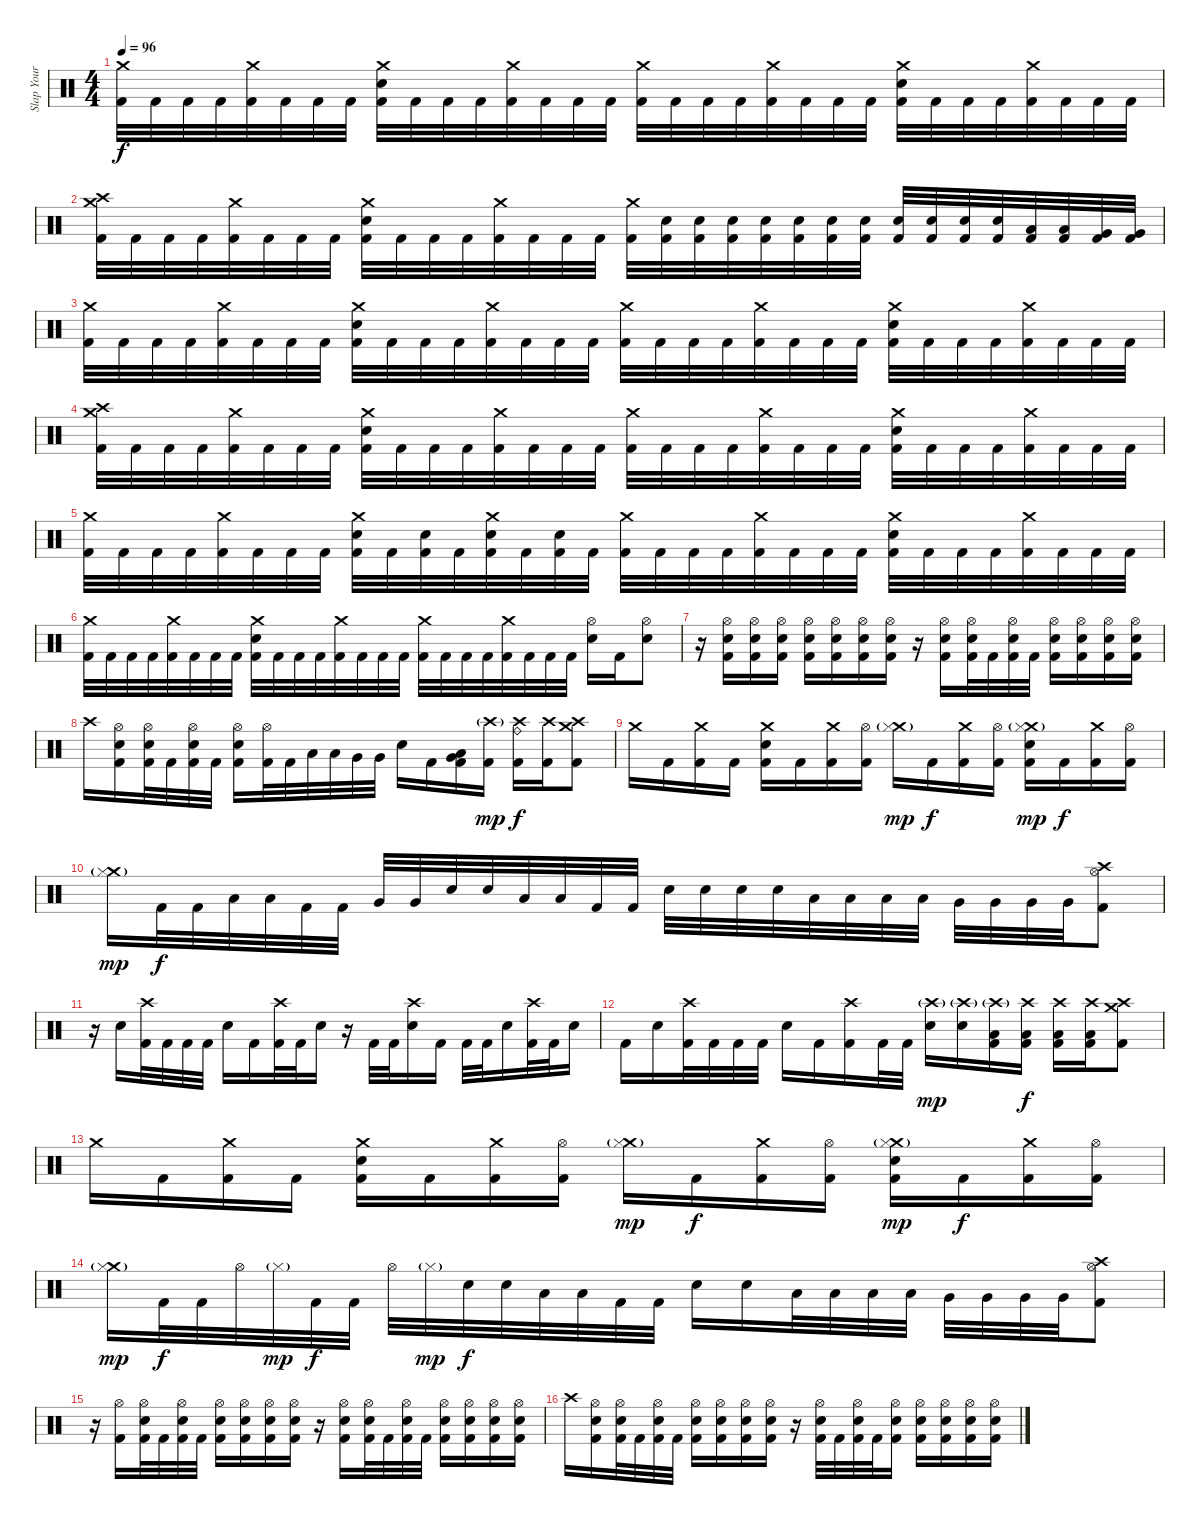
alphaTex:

\track ("Slap Your Sticks" "Slap Your ") {instrument percussion}
\staff {score}
\articulation defaults
\ts (4 4)
\tempo 96
\clef neutral
\ks c
("Crash medium (hit)" "Kick (hit) 2").32{dy f} "Kick (hit) 2".32 "Kick (hit) 2".32 "Kick (hit) 2".32 ("Crash medium (hit)" "Kick (hit) 2").32 "Kick (hit) 2".32 "Kick (hit) 2".32 "Kick (hit) 2".32 ("Crash medium (hit)" "Snare (hit) 2" "Kick (hit) 2").32 "Kick (hit) 2".32 "Kick (hit) 2".32 "Kick (hit) 2".32 ("Crash medium (hit)" "Kick (hit) 2").32 "Kick (hit) 2".32 "Kick (hit) 2".32 "Kick (hit) 2".32 ("Crash medium (hit)" "Kick (hit) 2").32 "Kick (hit) 2".32 "Kick (hit) 2".32 "Kick (hit) 2".32 ("Crash medium (hit)" "Kick (hit) 2").32 "Kick (hit) 2".32 "Kick (hit) 2".32 "Kick (hit) 2".32 ("Crash medium (hit)" "Snare (hit) 2" "Kick (hit) 2").32 "Kick (hit) 2".32 "Kick (hit) 2".32 "Kick (hit) 2".32 ("Crash medium (hit)" "Kick (hit) 2").32 "Kick (hit) 2".32 "Kick (hit) 2".32 "Kick (hit) 2".32 |
("Crash medium (hit)" "Crash high (hit)" "Kick (hit) 2").32 "Kick (hit) 2".32 "Kick (hit) 2".32 "Kick (hit) 2".32 ("Crash medium (hit)" "Kick (hit) 2").32 "Kick (hit) 2".32 "Kick (hit) 2".32 "Kick (hit) 2".32 ("Crash medium (hit)" "Snare (hit) 2" "Kick (hit) 2").32 "Kick (hit) 2".32 "Kick (hit) 2".32 "Kick (hit) 2".32 ("Crash medium (hit)" "Kick (hit) 2").32 "Kick (hit) 2".32 "Kick (hit) 2".32 "Kick (hit) 2".32 ("Crash medium (hit)" "Kick (hit) 2").32 ("Snare (hit) 2" "Kick (hit) 2").32 ("Snare (hit) 2" "Kick (hit) 2").32 ("Snare (hit) 2" "Kick (hit) 2").32 ("Snare (hit) 2" "Kick (hit) 2").32 ("Snare (hit) 2" "Kick (hit) 2").32 ("Snare (hit) 2" "Kick (hit) 2").32 ("Snare (hit) 2" "Kick (hit) 2").32 ("Snare (hit) 2" "Kick (hit) 2").32 ("Snare (hit) 2" "Kick (hit) 2").32 ("Snare (hit) 2" "Kick (hit) 2").32 ("Snare (hit) 2" "Kick (hit) 2").32 ("Low Tom (hit)" "Kick (hit) 2").32 ("Low Tom (hit)" "Kick (hit) 2").32 ("Very Low Tom (hit)" "Kick (hit) 2").32 ("Very Low Tom (hit)" "Kick (hit) 2").32 |
("Crash medium (hit)" "Kick (hit) 2").32 "Kick (hit) 2".32 "Kick (hit) 2".32 "Kick (hit) 2".32 ("Crash medium (hit)" "Kick (hit) 2").32 "Kick (hit) 2".32 "Kick (hit) 2".32 "Kick (hit) 2".32 ("Crash medium (hit)" "Snare (hit) 2" "Kick (hit) 2").32 "Kick (hit) 2".32 "Kick (hit) 2".32 "Kick (hit) 2".32 ("Crash medium (hit)" "Kick (hit) 2").32 "Kick (hit) 2".32 "Kick (hit) 2".32 "Kick (hit) 2".32 ("Crash medium (hit)" "Kick (hit) 2").32 "Kick (hit) 2".32 "Kick (hit) 2".32 "Kick (hit) 2".32 ("Crash medium (hit)" "Kick (hit) 2").32 "Kick (hit) 2".32 "Kick (hit) 2".32 "Kick (hit) 2".32 ("Crash medium (hit)" "Snare (hit) 2" "Kick (hit) 2").32 "Kick (hit) 2".32 "Kick (hit) 2".32 "Kick (hit) 2".32 ("Crash medium (hit)" "Kick (hit) 2").32 "Kick (hit) 2".32 "Kick (hit) 2".32 "Kick (hit) 2".32 |
("Crash medium (hit)" "Crash high (hit)" "Kick (hit) 2").32 "Kick (hit) 2".32 "Kick (hit) 2".32 "Kick (hit) 2".32 ("Crash medium (hit)" "Kick (hit) 2").32 "Kick (hit) 2".32 "Kick (hit) 2".32 "Kick (hit) 2".32 ("Crash medium (hit)" "Snare (hit) 2" "Kick (hit) 2").32 "Kick (hit) 2".32 "Kick (hit) 2".32 "Kick (hit) 2".32 ("Crash medium (hit)" "Kick (hit) 2").32 "Kick (hit) 2".32 "Kick (hit) 2".32 "Kick (hit) 2".32 ("Crash medium (hit)" "Kick (hit) 2").32 "Kick (hit) 2".32 "Kick (hit) 2".32 "Kick (hit) 2".32 ("Crash medium (hit)" "Kick (hit) 2").32 "Kick (hit) 2".32 "Kick (hit) 2".32 "Kick (hit) 2".32 ("Crash medium (hit)" "Snare (hit) 2" "Kick (hit) 2").32 "Kick (hit) 2".32 "Kick (hit) 2".32 "Kick (hit) 2".32 ("Crash medium (hit)" "Kick (hit) 2").32 "Kick (hit) 2".32 "Kick (hit) 2".32 "Kick (hit) 2".32 |
("Crash medium (hit)" "Kick (hit) 2").32 "Kick (hit) 2".32 "Kick (hit) 2".32 "Kick (hit) 2".32 ("Crash medium (hit)" "Kick (hit) 2").32 "Kick (hit) 2".32 "Kick (hit) 2".32 "Kick (hit) 2".32 ("Crash medium (hit)" "Snare (hit) 2" "Kick (hit) 2").32 "Kick (hit) 2".32 ("Snare (hit) 2" "Kick (hit) 2").32 "Kick (hit) 2".32 ("Crash medium (hit)" "Snare (hit) 2" "Kick (hit) 2").32 "Kick (hit) 2".32 ("Snare (hit) 2" "Kick (hit) 2").32 "Kick (hit) 2".32 ("Crash medium (hit)" "Kick (hit) 2").32 "Kick (hit) 2".32 "Kick (hit) 2".32 "Kick (hit) 2".32 ("Crash medium (hit)" "Kick (hit) 2").32 "Kick (hit) 2".32 "Kick (hit) 2".32 "Kick (hit) 2".32 ("Crash medium (hit)" "Snare (hit) 2" "Kick (hit) 2").32 "Kick (hit) 2".32 "Kick (hit) 2".32 "Kick (hit) 2".32 ("Crash medium (hit)" "Kick (hit) 2").32 "Kick (hit) 2".32 "Kick (hit) 2".32 "Kick (hit) 2".32 |
("Crash medium (hit)" "Kick (hit) 2").32 "Kick (hit) 2".32 "Kick (hit) 2".32 "Kick (hit) 2".32 ("Crash medium (hit)" "Kick (hit) 2").32 "Kick (hit) 2".32 "Kick (hit) 2".32 "Kick (hit) 2".32 ("Crash medium (hit)" "Snare (hit) 2" "Kick (hit) 2").32 "Kick (hit) 2".32 "Kick (hit) 2".32 "Kick (hit) 2".32 ("Crash medium (hit)" "Kick (hit) 2").32 "Kick (hit) 2".32 "Kick (hit) 2".32 "Kick (hit) 2".32 ("Crash medium (hit)" "Kick (hit) 2").32 "Kick (hit) 2".32 "Kick (hit) 2".32 "Kick (hit) 2".32 ("Crash medium (hit)" "Kick (hit) 2").32 "Kick (hit) 2".32 "Kick (hit) 2".32 "Kick (hit) 2".32 ("Hi-Hat (open)" "Snare (hit) 2").16 "Kick (hit) 2".16 ("Hi-Hat (open)" "Snare (hit) 2").8 |
r.16 ("Hi-Hat (open)" "Snare (hit) 2" "Kick (hit) 2").16 ("Hi-Hat (open)" "Snare (hit) 2" "Kick (hit) 2").16 ("Hi-Hat (open)" "Snare (hit) 2" "Kick (hit) 2").16 ("Hi-Hat (open)" "Snare (hit) 2" "Kick (hit) 2").16 ("Hi-Hat (open)" "Snare (hit) 2" "Kick (hit) 2").16 ("Hi-Hat (open)" "Snare (hit) 2" "Kick (hit) 2").16 ("Hi-Hat (open)" "Snare (hit) 2" "Kick (hit) 2").16 r.16 ("Hi-Hat (open)" "Snare (hit) 2" "Kick (hit) 2").16 ("Hi-Hat (open)" "Snare (hit) 2" "Kick (hit) 2").32 "Kick (hit) 2".32 ("Hi-Hat (open)" "Snare (hit) 2" "Kick (hit) 2").32 "Kick (hit) 2".32 ("Hi-Hat (open)" "Snare (hit) 2" "Kick (hit) 2").16 ("Hi-Hat (open)" "Snare (hit) 2" "Kick (hit) 2").16 ("Hi-Hat (open)" "Snare (hit) 2" "Kick (hit) 2").16 ("Hi-Hat (open)" "Snare (hit) 2" "Kick (hit) 2").16 |
"Crash high (hit)".16 ("Hi-Hat (open)" "Snare (hit) 2" "Kick (hit) 2").16 ("Hi-Hat (open)" "Snare (hit) 2" "Kick (hit) 2").32 "Kick (hit) 2".32 ("Hi-Hat (open)" "Snare (hit) 2" "Kick (hit) 2").32 "Kick (hit) 2".32 ("Hi-Hat (open)" "Snare (hit) 2" "Kick (hit) 2").16 ("Hi-Hat (open)" "Kick (hit) 2").32 "Kick (hit) 2".32 "Low Tom (hit)".32 "Low Tom (hit)".32 "Very Low Tom (hit)".32 "Very Low Tom (hit)".32 "Snare (hit) 2".16 "Kick (hit) 2".16 ("Low Tom (hit)" "Very Low Tom (hit)" "Kick (hit) 2").16 ("Crash high (hit)"{g} "Kick (hit) 2").16{dy mp} ("Crash high (hit)" "Ride (bell)" "Kick (hit) 2").16{dy f} ("Crash high (hit)" "Kick (hit) 2").16 ("Crash medium (hit)" "Crash high (hit)" "Kick (hit) 2").8 |
"Crash medium (hit)".16 "Kick (hit) 2".16 ("Crash medium (hit)" "Kick (hit) 2").16 "Kick (hit) 2".16 ("Crash medium (hit)" "Snare (hit) 2" "Kick (hit) 2").16 "Kick (hit) 2".16 ("Crash medium (hit)" "Kick (hit) 2").16 ("Hi-Hat (open)" "Kick (hit) 2").16 ("Crash medium (hit)" "Hi-Hat (closed)"{g}).16{dy mp} "Kick (hit) 2".16{dy f} ("Crash medium (hit)" "Kick (hit) 2").16 ("Hi-Hat (open)" "Kick (hit) 2").16 ("Crash medium (hit)" "Hi-Hat (closed)"{g} "Snare (hit) 2" "Kick (hit) 2").16{dy mp} "Kick (hit) 2".16{dy f} ("Crash medium (hit)" "Kick (hit) 2").16 ("Hi-Hat (open)" "Kick (hit) 2").16 |
("Crash medium (hit)" "Hi-Hat (closed)"{g}).16{dy mp} "Kick (hit) 2".32{dy f} "Kick (hit) 2".32 "Low Tom (hit)".32 "Low Tom (hit)".32 "Kick (hit) 2".32 "Kick (hit) 2".32 "Very Low Tom (hit)".32 "Very Low Tom (hit)".32 "Snare (hit) 2".32 "Snare (hit) 2".32 "Low Floor Tom (hit)".32 "Low Floor Tom (hit)".32 "Kick (hit) 2".32 "Kick (hit) 2".32 "Snare (hit) 2".32 "Snare (hit) 2".32 "Snare (hit) 2".32 "Snare (hit) 2".32 "Low Tom (hit)".32 "Low Tom (hit)".32 "Low Tom (hit)".32 "Low Tom (hit)".32 "Very Low Tom (hit)".32 "Very Low Tom (hit)".32 "Very Low Tom (hit)".32 "Very Low Tom (hit)".32 ("Crash high (hit)" "Hi-Hat (open)" "Kick (hit) 2").8 |
r.16 "Snare (hit) 2".16 ("Crash high (hit)" "Kick (hit) 2").32 "Kick (hit) 2".32 "Kick (hit) 2".32 "Kick (hit) 2".32 "Snare (hit) 2".16 "Kick (hit) 2".16 ("Crash high (hit)" "Kick (hit) 2").32 "Kick (hit) 2".32 "Snare (hit) 2".16 r.16 "Kick (hit) 2".32 "Kick (hit) 2".32 ("Crash high (hit)" "Snare (hit) 2").16 "Kick (hit) 2".16 "Kick (hit) 2".32 "Kick (hit) 2".32 "Snare (hit) 2".16 ("Crash high (hit)" "Kick (hit) 2").32 "Kick (hit) 2".32 "Snare (hit) 2".16 |
"Kick (hit) 2".16 "Snare (hit) 2".16 ("Crash high (hit)" "Kick (hit) 2").32 "Kick (hit) 2".32 "Kick (hit) 2".32 "Kick (hit) 2".32 "Snare (hit) 2".16 "Kick (hit) 2".16 ("Crash high (hit)" "Kick (hit) 2").16 "Kick (hit) 2".32 "Kick (hit) 2".32 ("Crash high (hit)"{g} "Snare (hit) 2").16{dy mp} ("Crash high (hit)"{g} "Snare (hit) 2").16 ("Crash high (hit)"{g} "Low Tom (hit)" "Kick (hit) 2").16 ("Crash high (hit)" "Low Tom (hit)" "Kick (hit) 2").16{dy f} ("Crash high (hit)" "Low Tom (hit)" "Kick (hit) 2").16 ("Crash high (hit)" "Low Tom (hit)" "Kick (hit) 2").16 ("Crash medium (hit)" "Crash high (hit)" "Kick (hit) 2").8 |
"Crash medium (hit)".16 "Kick (hit) 2".16 ("Crash medium (hit)" "Kick (hit) 2").16 "Kick (hit) 2".16 ("Crash medium (hit)" "Snare (hit) 2" "Kick (hit) 2").16 "Kick (hit) 2".16 ("Crash medium (hit)" "Kick (hit) 2").16 ("Hi-Hat (open)" "Kick (hit) 2").16 ("Crash medium (hit)" "Hi-Hat (closed)"{g}).16{dy mp} "Kick (hit) 2".16{dy f} ("Crash medium (hit)" "Kick (hit) 2").16 ("Hi-Hat (open)" "Kick (hit) 2").16 ("Crash medium (hit)" "Hi-Hat (closed)"{g} "Snare (hit) 2" "Kick (hit) 2").16{dy mp} "Kick (hit) 2".16{dy f} ("Crash medium (hit)" "Kick (hit) 2").16 ("Hi-Hat (open)" "Kick (hit) 2").16 |
("Crash medium (hit)" "Hi-Hat (closed)"{g}).16{dy mp} "Kick (hit) 2".32{dy f} "Kick (hit) 2".32 "Hi-Hat (open)".32 "Hi-Hat (closed)"{g}.32{dy mp} "Kick (hit) 2".32{dy f} "Kick (hit) 2".32 "Hi-Hat (open)".32 "Hi-Hat (closed)"{g}.32{dy mp} "Snare (hit) 2".32{dy f} "Snare (hit) 2".32 "Low Floor Tom (hit)".32 "Low Floor Tom (hit)".32 "Kick (hit) 2".32 "Kick (hit) 2".32 "Snare (hit) 2".16 "Snare (hit) 2".16 "Low Tom (hit)".32 "Low Tom (hit)".32 "Low Tom (hit)".32 "Low Tom (hit)".32 "Very Low Tom (hit)".32 "Very Low Tom (hit)".32 "Very Low Tom (hit)".32 "Very Low Tom (hit)".32 ("Crash high (hit)" "Hi-Hat (open)" "Kick (hit) 2").8 |
r.16 ("Hi-Hat (open)" "Kick (hit) 2").16 ("Hi-Hat (open)" "Snare (hit) 2" "Kick (hit) 2").32 "Kick (hit) 2".32 ("Hi-Hat (open)" "Snare (hit) 2" "Kick (hit) 2").32 "Kick (hit) 2".32 ("Hi-Hat (open)" "Snare (hit) 2" "Kick (hit) 2").16 ("Hi-Hat (open)" "Snare (hit) 2" "Kick (hit) 2").16 ("Hi-Hat (open)" "Snare (hit) 2" "Kick (hit) 2").16 ("Hi-Hat (open)" "Snare (hit) 2" "Kick (hit) 2").16 r.16 ("Hi-Hat (open)" "Snare (hit) 2" "Kick (hit) 2").16 ("Hi-Hat (open)" "Snare (hit) 2" "Kick (hit) 2").32 "Kick (hit) 2".32 ("Hi-Hat (open)" "Snare (hit) 2" "Kick (hit) 2").32 "Kick (hit) 2".32 ("Hi-Hat (open)" "Snare (hit) 2" "Kick (hit) 2").16 ("Hi-Hat (open)" "Snare (hit) 2" "Kick (hit) 2").16 ("Hi-Hat (open)" "Snare (hit) 2" "Kick (hit) 2").16 ("Hi-Hat (open)" "Snare (hit) 2" "Kick (hit) 2").16 |
"Crash high (hit)".16 ("Hi-Hat (open)" "Snare (hit) 2" "Kick (hit) 2").16 ("Hi-Hat (open)" "Snare (hit) 2" "Kick (hit) 2").32 "Kick (hit) 2".32 ("Hi-Hat (open)" "Snare (hit) 2" "Kick (hit) 2").32 "Kick (hit) 2".32 ("Hi-Hat (open)" "Snare (hit) 2" "Kick (hit) 2").16 ("Hi-Hat (open)" "Snare (hit) 2" "Kick (hit) 2").16 ("Hi-Hat (open)" "Snare (hit) 2" "Kick (hit) 2").16 ("Hi-Hat (open)" "Snare (hit) 2" "Kick (hit) 2").16 r.16 ("Hi-Hat (open)" "Snare (hit) 2" "Kick (hit) 2").32 "Kick (hit) 2".32 ("Hi-Hat (open)" "Snare (hit) 2" "Kick (hit) 2").32 "Kick (hit) 2".32 ("Hi-Hat (open)" "Snare (hit) 2" "Kick (hit) 2").16 ("Hi-Hat (open)" "Snare (hit) 2" "Kick (hit) 2").16 ("Hi-Hat (open)" "Snare (hit) 2" "Kick (hit) 2").16 ("Hi-Hat (open)" "Snare (hit) 2" "Kick (hit) 2").16 ("Hi-Hat (open)" "Snare (hit) 2" "Kick (hit) 2").16
